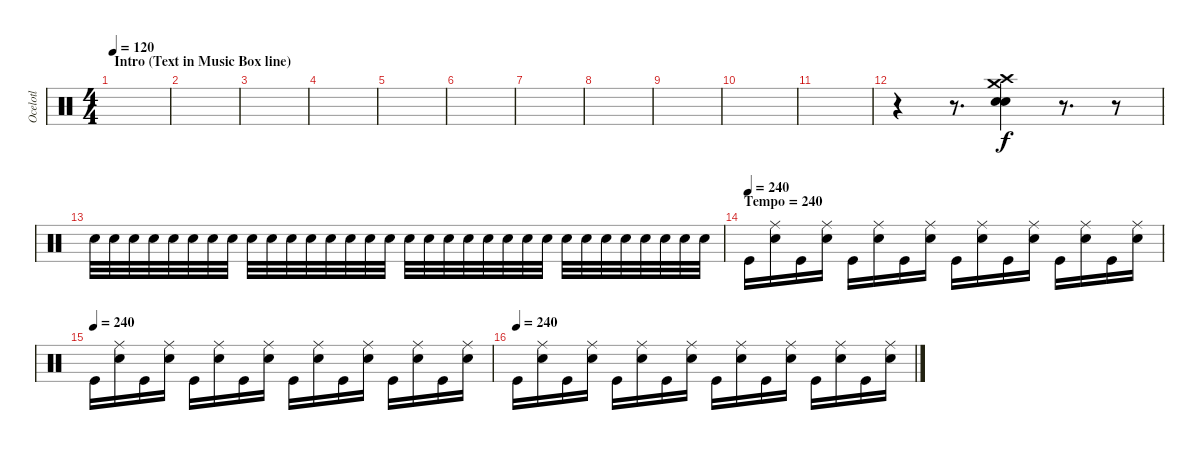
\track ("Ocelotl" "Ocelotl") {instrument percussion}
\staff {score}
\articulation defaults
\ts (4 4)
\section ("" "Intro (Text in Music Box line)")
\tempo 120
\clef neutral
\ks c
|
|
|
|
|
|
|
|
|
|
|
r.4 r.8{d} ("Crash high (hit)" "Snare (hit) 2" "Snare (hit) 2" "Crash medium (hit)").4 r.8{d} r.8 |
"Snare (hit) 2".32{dy f} "Snare (hit) 2".32 "Snare (hit) 2".32 "Snare (hit) 2".32 "Snare (hit) 2".32 "Snare (hit) 2".32 "Snare (hit) 2".32 "Snare (hit) 2".32 "Snare (hit) 2".32 "Snare (hit) 2".32 "Snare (hit) 2".32 "Snare (hit) 2".32 "Snare (hit) 2".32 "Snare (hit) 2".32 "Snare (hit) 2".32 "Snare (hit) 2".32 "Snare (hit) 2".32 "Snare (hit) 2".32 "Snare (hit) 2".32 "Snare (hit) 2".32 "Snare (hit) 2".32 "Snare (hit) 2".32 "Snare (hit) 2".32 "Snare (hit) 2".32 "Snare (hit) 2".32 "Snare (hit) 2".32 "Snare (hit) 2".32 "Snare (hit) 2".32 "Snare (hit) 2".32 "Snare (hit) 2".32 "Snare (hit) 2".32 "Snare (hit) 2".32 |
\section ("" "Tempo = 240")
\tempo (240)
"Kick (hit)".16 ("Ride (middle)" "Snare (hit) 2").16 "Kick (hit)".16 ("Ride (middle)" "Snare (hit) 2").16 "Kick (hit)".16 ("Ride (middle)" "Snare (hit) 2").16 "Kick (hit)".16 ("Ride (middle)" "Snare (hit) 2").16 "Kick (hit)".16 ("Ride (middle)" "Snare (hit) 2").16 "Kick (hit)".16 ("Ride (middle)" "Snare (hit) 2").16 "Kick (hit)".16 ("Ride (middle)" "Snare (hit) 2").16 "Kick (hit)".16 ("Ride (middle)" "Snare (hit) 2").16 |
\tempo (240)
"Kick (hit)".16 ("Ride (middle)" "Snare (hit) 2").16 "Kick (hit)".16 ("Ride (middle)" "Snare (hit) 2").16 "Kick (hit)".16 ("Ride (middle)" "Snare (hit) 2").16 "Kick (hit)".16 ("Ride (middle)" "Snare (hit) 2").16 "Kick (hit)".16 ("Ride (middle)" "Snare (hit) 2").16 "Kick (hit)".16 ("Ride (middle)" "Snare (hit) 2").16 "Kick (hit)".16 ("Ride (middle)" "Snare (hit) 2").16 "Kick (hit)".16 ("Ride (middle)" "Snare (hit) 2").16 |
\tempo (240)
"Kick (hit)".16 ("Ride (middle)" "Snare (hit) 2").16 "Kick (hit)".16 ("Ride (middle)" "Snare (hit) 2").16 "Kick (hit)".16 ("Ride (middle)" "Snare (hit) 2").16 "Kick (hit)".16 ("Ride (middle)" "Snare (hit) 2").16 "Kick (hit)".16 ("Ride (middle)" "Snare (hit) 2").16 "Kick (hit)".16 ("Ride (middle)" "Snare (hit) 2").16 "Kick (hit)".16 ("Ride (middle)" "Snare (hit) 2").16 "Kick (hit)".16 ("Ride (middle)" "Snare (hit) 2").16
